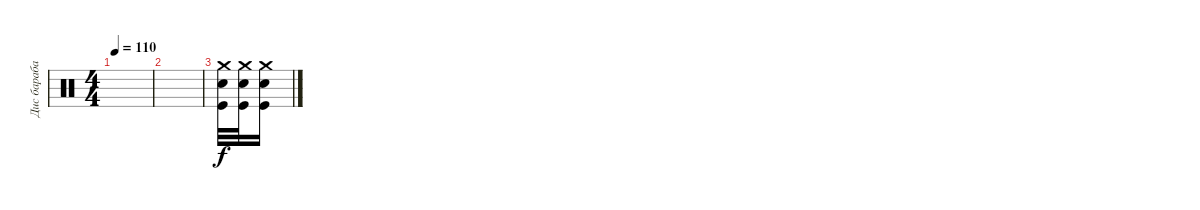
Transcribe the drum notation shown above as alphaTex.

\track ("Дис барабаны" "Дис бараба") {instrument percussion}
\staff {score}
\articulation defaults
\ts (4 4)
\tempo 110
\clef neutral
\ks c
|
|
("Crash medium (hit)" "Electric Snare (hit)" "Kick (hit)").32 ("Crash medium (hit)" "Electric Snare (hit)" "Kick (hit)").32 ("Crash medium (hit)" "Electric Snare (hit)" "Kick (hit)").16
